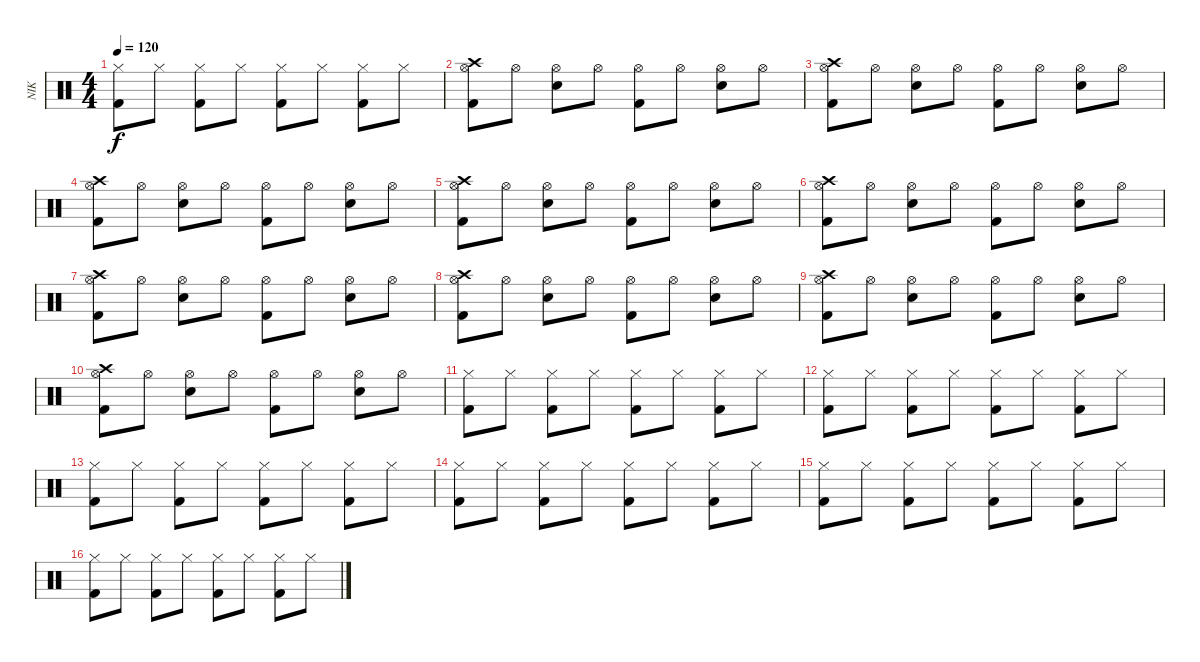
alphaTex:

\track ("NIK" "NIK") {instrument percussion}
\staff {score}
\articulation defaults
\ts (4 4)
\tempo 120
\clef neutral
\ks c
("Hi-Hat (closed)" "Kick (hit) 2").8{dy f} "Hi-Hat (closed)".8 ("Hi-Hat (closed)" "Kick (hit) 2").8 "Hi-Hat (closed)".8 ("Hi-Hat (closed)" "Kick (hit) 2").8 "Hi-Hat (closed)".8 ("Hi-Hat (closed)" "Kick (hit) 2").8 "Hi-Hat (closed)".8 |
("Kick (hit) 2" "Crash high (hit)" "Hi-Hat (open)").8 "Hi-Hat (open)".8 ("Snare (hit) 2" "Hi-Hat (open)").8 "Hi-Hat (open)".8 ("Kick (hit) 2" "Hi-Hat (open)").8 "Hi-Hat (open)".8 ("Snare (hit) 2" "Hi-Hat (open)").8 "Hi-Hat (open)".8 |
("Kick (hit) 2" "Crash high (hit)" "Hi-Hat (open)").8 "Hi-Hat (open)".8 ("Snare (hit) 2" "Hi-Hat (open)").8 "Hi-Hat (open)".8 ("Kick (hit) 2" "Hi-Hat (open)").8 "Hi-Hat (open)".8 ("Snare (hit) 2" "Hi-Hat (open)").8 "Hi-Hat (open)".8 |
("Kick (hit) 2" "Crash high (hit)" "Hi-Hat (open)").8 "Hi-Hat (open)".8 ("Snare (hit) 2" "Hi-Hat (open)").8 "Hi-Hat (open)".8 ("Kick (hit) 2" "Hi-Hat (open)").8 "Hi-Hat (open)".8 ("Snare (hit) 2" "Hi-Hat (open)").8 "Hi-Hat (open)".8 |
("Kick (hit) 2" "Crash high (hit)" "Hi-Hat (open)").8 "Hi-Hat (open)".8 ("Snare (hit) 2" "Hi-Hat (open)").8 "Hi-Hat (open)".8 ("Kick (hit) 2" "Hi-Hat (open)").8 "Hi-Hat (open)".8 ("Snare (hit) 2" "Hi-Hat (open)").8 "Hi-Hat (open)".8 |
("Kick (hit) 2" "Crash high (hit)" "Hi-Hat (open)").8 "Hi-Hat (open)".8 ("Snare (hit) 2" "Hi-Hat (open)").8 "Hi-Hat (open)".8 ("Kick (hit) 2" "Hi-Hat (open)").8 "Hi-Hat (open)".8 ("Snare (hit) 2" "Hi-Hat (open)").8 "Hi-Hat (open)".8 |
("Kick (hit) 2" "Crash high (hit)" "Hi-Hat (open)").8 "Hi-Hat (open)".8 ("Snare (hit) 2" "Hi-Hat (open)").8 "Hi-Hat (open)".8 ("Kick (hit) 2" "Hi-Hat (open)").8 "Hi-Hat (open)".8 ("Snare (hit) 2" "Hi-Hat (open)").8 "Hi-Hat (open)".8 |
("Kick (hit) 2" "Crash high (hit)" "Hi-Hat (open)").8 "Hi-Hat (open)".8 ("Snare (hit) 2" "Hi-Hat (open)").8 "Hi-Hat (open)".8 ("Kick (hit) 2" "Hi-Hat (open)").8 "Hi-Hat (open)".8 ("Snare (hit) 2" "Hi-Hat (open)").8 "Hi-Hat (open)".8 |
("Kick (hit) 2" "Crash high (hit)" "Hi-Hat (open)").8 "Hi-Hat (open)".8 ("Snare (hit) 2" "Hi-Hat (open)").8 "Hi-Hat (open)".8 ("Kick (hit) 2" "Hi-Hat (open)").8 "Hi-Hat (open)".8 ("Snare (hit) 2" "Hi-Hat (open)").8 "Hi-Hat (open)".8 |
("Kick (hit) 2" "Crash high (hit)" "Hi-Hat (open)").8 "Hi-Hat (open)".8 ("Snare (hit) 2" "Hi-Hat (open)").8 "Hi-Hat (open)".8 ("Kick (hit) 2" "Hi-Hat (open)").8 "Hi-Hat (open)".8 ("Snare (hit) 2" "Hi-Hat (open)").8 "Hi-Hat (open)".8 |
("Hi-Hat (closed)" "Kick (hit) 2").8 "Hi-Hat (closed)".8 ("Hi-Hat (closed)" "Kick (hit) 2").8 "Hi-Hat (closed)".8 ("Hi-Hat (closed)" "Kick (hit) 2").8 "Hi-Hat (closed)".8 ("Hi-Hat (closed)" "Kick (hit) 2").8 "Hi-Hat (closed)".8 |
("Hi-Hat (closed)" "Kick (hit) 2").8 "Hi-Hat (closed)".8 ("Hi-Hat (closed)" "Kick (hit) 2").8 "Hi-Hat (closed)".8 ("Hi-Hat (closed)" "Kick (hit) 2").8 "Hi-Hat (closed)".8 ("Hi-Hat (closed)" "Kick (hit) 2").8 "Hi-Hat (closed)".8 |
("Hi-Hat (closed)" "Kick (hit) 2").8 "Hi-Hat (closed)".8 ("Hi-Hat (closed)" "Kick (hit) 2").8 "Hi-Hat (closed)".8 ("Hi-Hat (closed)" "Kick (hit) 2").8 "Hi-Hat (closed)".8 ("Hi-Hat (closed)" "Kick (hit) 2").8 "Hi-Hat (closed)".8 |
("Hi-Hat (closed)" "Kick (hit) 2").8 "Hi-Hat (closed)".8 ("Hi-Hat (closed)" "Kick (hit) 2").8 "Hi-Hat (closed)".8 ("Hi-Hat (closed)" "Kick (hit) 2").8 "Hi-Hat (closed)".8 ("Hi-Hat (closed)" "Kick (hit) 2").8 "Hi-Hat (closed)".8 |
("Hi-Hat (closed)" "Kick (hit) 2").8 "Hi-Hat (closed)".8 ("Hi-Hat (closed)" "Kick (hit) 2").8 "Hi-Hat (closed)".8 ("Hi-Hat (closed)" "Kick (hit) 2").8 "Hi-Hat (closed)".8 ("Hi-Hat (closed)" "Kick (hit) 2").8 "Hi-Hat (closed)".8 |
("Hi-Hat (closed)" "Kick (hit) 2").8 "Hi-Hat (closed)".8 ("Hi-Hat (closed)" "Kick (hit) 2").8 "Hi-Hat (closed)".8 ("Hi-Hat (closed)" "Kick (hit) 2").8 "Hi-Hat (closed)".8 ("Hi-Hat (closed)" "Kick (hit) 2").8 "Hi-Hat (closed)".8
